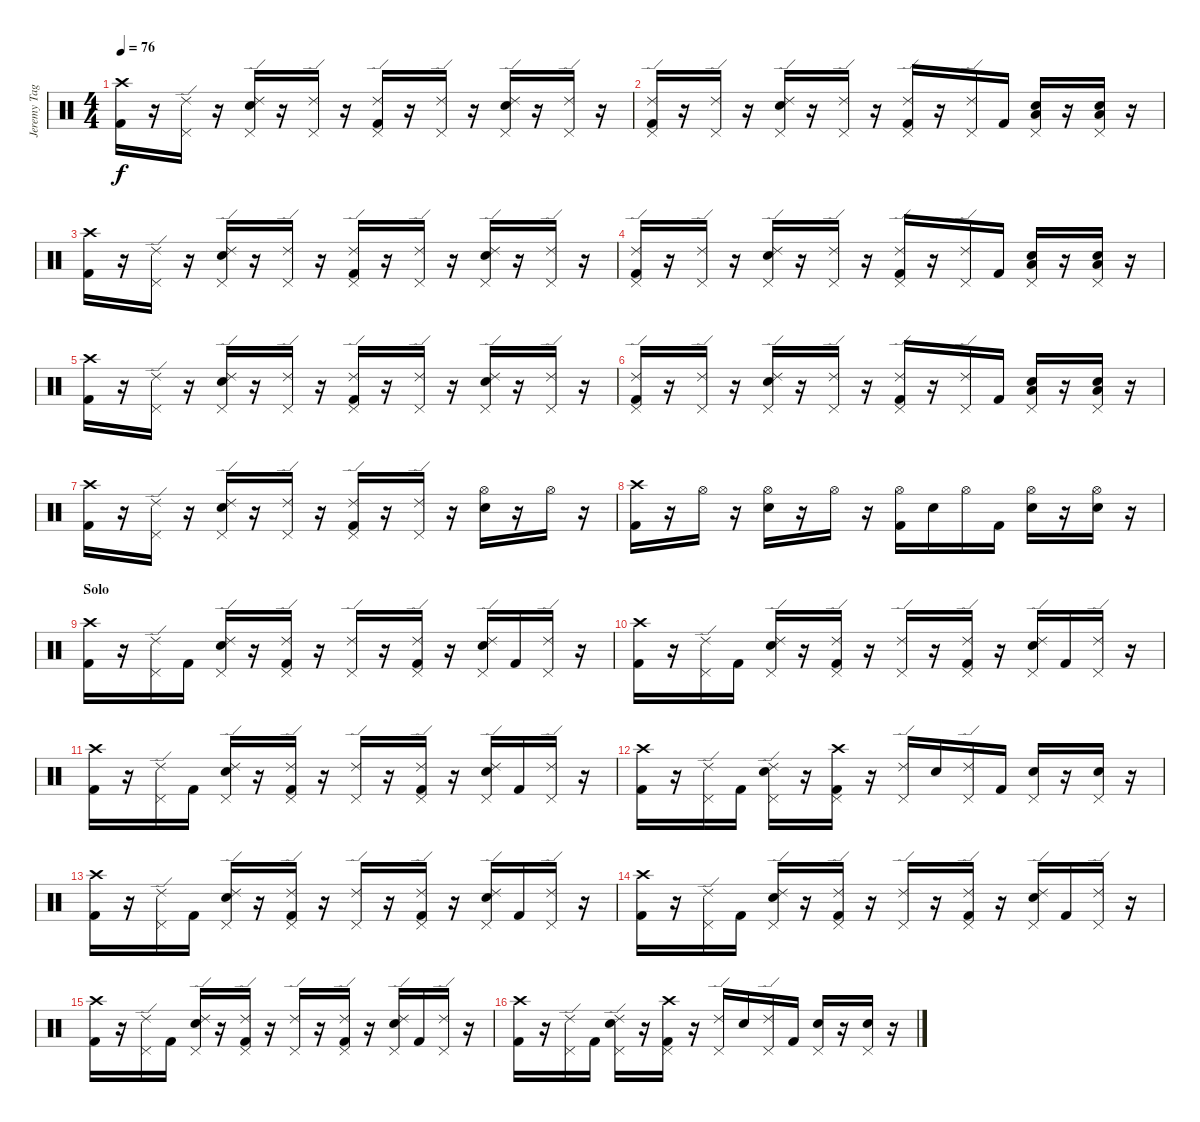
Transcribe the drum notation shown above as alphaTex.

\track ("Jeremy Taggart(Drums)" "Jeremy Tag") {instrument percussion}
\staff {score}
\articulation defaults
\ts (4 4)
\tempo 76
\clef neutral
\ks c
("Crash high (hit)" "Kick (hit) 2").16{dy f} r.16 ("Ride (edge) 2" "Pedal Hi-Hat (hit)").16 r.16 ("Ride (edge) 2" "Pedal Hi-Hat (hit)" "Snare (hit) 2").16 r.16 ("Ride (edge) 2" "Pedal Hi-Hat (hit)").16 r.16 ("Ride (edge) 2" "Pedal Hi-Hat (hit)" "Kick (hit) 2").16 r.16 ("Ride (edge) 2" "Pedal Hi-Hat (hit)").16 r.16 ("Ride (edge) 2" "Pedal Hi-Hat (hit)" "Snare (hit) 2").16 r.16 ("Ride (edge) 2" "Pedal Hi-Hat (hit)").16 r.16 |
("Ride (edge) 2" "Pedal Hi-Hat (hit)" "Kick (hit) 2").16 r.16 ("Ride (edge) 2" "Pedal Hi-Hat (hit)").16 r.16 ("Ride (edge) 2" "Pedal Hi-Hat (hit)" "Snare (hit) 2").16 r.16 ("Ride (edge) 2" "Pedal Hi-Hat (hit)").16 r.16 ("Ride (edge) 2" "Pedal Hi-Hat (hit)" "Kick (hit) 2").16 r.16 ("Ride (edge) 2" "Pedal Hi-Hat (hit)").16 "Kick (hit) 2".16 ("Pedal Hi-Hat (hit)" "Snare (hit) 2" "Low Tom (hit)").16 r.16 ("Pedal Hi-Hat (hit)" "Snare (hit) 2" "Low Tom (hit)").16 r.16 |
("Crash high (hit)" "Kick (hit) 2").16 r.16 ("Ride (edge) 2" "Pedal Hi-Hat (hit)").16 r.16 ("Ride (edge) 2" "Pedal Hi-Hat (hit)" "Snare (hit) 2").16 r.16 ("Ride (edge) 2" "Pedal Hi-Hat (hit)").16 r.16 ("Ride (edge) 2" "Pedal Hi-Hat (hit)" "Kick (hit) 2").16 r.16 ("Ride (edge) 2" "Pedal Hi-Hat (hit)").16 r.16 ("Ride (edge) 2" "Pedal Hi-Hat (hit)" "Snare (hit) 2").16 r.16 ("Ride (edge) 2" "Pedal Hi-Hat (hit)").16 r.16 |
("Ride (edge) 2" "Pedal Hi-Hat (hit)" "Kick (hit) 2").16 r.16 ("Ride (edge) 2" "Pedal Hi-Hat (hit)").16 r.16 ("Ride (edge) 2" "Pedal Hi-Hat (hit)" "Snare (hit) 2").16 r.16 ("Ride (edge) 2" "Pedal Hi-Hat (hit)").16 r.16 ("Ride (edge) 2" "Pedal Hi-Hat (hit)" "Kick (hit) 2").16 r.16 ("Ride (edge) 2" "Pedal Hi-Hat (hit)").16 "Kick (hit) 2".16 ("Pedal Hi-Hat (hit)" "Snare (hit) 2" "Low Tom (hit)").16 r.16 ("Pedal Hi-Hat (hit)" "Snare (hit) 2" "Low Tom (hit)").16 r.16 |
("Crash high (hit)" "Kick (hit) 2").16 r.16 ("Ride (edge) 2" "Pedal Hi-Hat (hit)").16 r.16 ("Ride (edge) 2" "Pedal Hi-Hat (hit)" "Snare (hit) 2").16 r.16 ("Ride (edge) 2" "Pedal Hi-Hat (hit)").16 r.16 ("Ride (edge) 2" "Pedal Hi-Hat (hit)" "Kick (hit) 2").16 r.16 ("Ride (edge) 2" "Pedal Hi-Hat (hit)").16 r.16 ("Ride (edge) 2" "Pedal Hi-Hat (hit)" "Snare (hit) 2").16 r.16 ("Ride (edge) 2" "Pedal Hi-Hat (hit)").16 r.16 |
("Ride (edge) 2" "Pedal Hi-Hat (hit)" "Kick (hit) 2").16 r.16 ("Ride (edge) 2" "Pedal Hi-Hat (hit)").16 r.16 ("Ride (edge) 2" "Pedal Hi-Hat (hit)" "Snare (hit) 2").16 r.16 ("Ride (edge) 2" "Pedal Hi-Hat (hit)").16 r.16 ("Ride (edge) 2" "Pedal Hi-Hat (hit)" "Kick (hit) 2").16 r.16 ("Ride (edge) 2" "Pedal Hi-Hat (hit)").16 "Kick (hit) 2".16 ("Pedal Hi-Hat (hit)" "Snare (hit) 2" "Low Tom (hit)").16 r.16 ("Pedal Hi-Hat (hit)" "Snare (hit) 2" "Low Tom (hit)").16 r.16 |
("Crash high (hit)" "Kick (hit) 2").16 r.16 ("Ride (edge) 2" "Pedal Hi-Hat (hit)").16 r.16 ("Ride (edge) 2" "Pedal Hi-Hat (hit)" "Snare (hit) 2").16 r.16 ("Ride (edge) 2" "Pedal Hi-Hat (hit)").16 r.16 ("Ride (edge) 2" "Pedal Hi-Hat (hit)" "Kick (hit) 2").16 r.16 ("Ride (edge) 2" "Pedal Hi-Hat (hit)").16 r.16 ("Hi-Hat (open)" "Snare (hit) 2").16 r.16 "Hi-Hat (open)".16 r.16 |
("Crash high (hit)" "Kick (hit) 2").16 r.16 "Hi-Hat (open)".16 r.16 ("Hi-Hat (open)" "Snare (hit) 2").16 r.16 "Hi-Hat (open)".16 r.16 ("Hi-Hat (open)" "Kick (hit) 2").16 "Snare (hit) 2".16 "Hi-Hat (open)".16 "Kick (hit) 2".16 ("Hi-Hat (open)" "Snare (hit) 2").16 r.16 ("Hi-Hat (open)" "Snare (hit) 2").16 r.16 |
\section ("" "Solo")
("Crash high (hit)" "Kick (hit) 2").16 r.16 ("Ride (edge) 2" "Pedal Hi-Hat (hit)").16 "Kick (hit) 2".16 ("Ride (edge) 2" "Snare (hit) 2" "Pedal Hi-Hat (hit)").16 r.16 ("Ride (edge) 2" "Pedal Hi-Hat (hit)" "Kick (hit) 2").16 r.16 ("Ride (edge) 2" "Pedal Hi-Hat (hit)").16 r.16 ("Ride (edge) 2" "Pedal Hi-Hat (hit)" "Kick (hit) 2").16 r.16 ("Ride (edge) 2" "Snare (hit) 2" "Pedal Hi-Hat (hit)").16 "Kick (hit) 2".16 ("Ride (edge) 2" "Pedal Hi-Hat (hit)").16 r.16 |
("Crash high (hit)" "Kick (hit) 2").16 r.16 ("Ride (edge) 2" "Pedal Hi-Hat (hit)").16 "Kick (hit) 2".16 ("Ride (edge) 2" "Snare (hit) 2" "Pedal Hi-Hat (hit)").16 r.16 ("Ride (edge) 2" "Pedal Hi-Hat (hit)" "Kick (hit) 2").16 r.16 ("Ride (edge) 2" "Pedal Hi-Hat (hit)").16 r.16 ("Ride (edge) 2" "Pedal Hi-Hat (hit)" "Kick (hit) 2").16 r.16 ("Ride (edge) 2" "Snare (hit) 2" "Pedal Hi-Hat (hit)").16 "Kick (hit) 2".16 ("Ride (edge) 2" "Pedal Hi-Hat (hit)").16 r.16 |
("Crash high (hit)" "Kick (hit) 2").16 r.16 ("Ride (edge) 2" "Pedal Hi-Hat (hit)").16 "Kick (hit) 2".16 ("Ride (edge) 2" "Snare (hit) 2" "Pedal Hi-Hat (hit)").16 r.16 ("Ride (edge) 2" "Pedal Hi-Hat (hit)" "Kick (hit) 2").16 r.16 ("Ride (edge) 2" "Pedal Hi-Hat (hit)").16 r.16 ("Ride (edge) 2" "Pedal Hi-Hat (hit)" "Kick (hit) 2").16 r.16 ("Ride (edge) 2" "Snare (hit) 2" "Pedal Hi-Hat (hit)").16 "Kick (hit) 2".16 ("Ride (edge) 2" "Pedal Hi-Hat (hit)").16 r.16 |
("Crash high (hit)" "Kick (hit) 2").16 r.16 ("Ride (edge) 2" "Pedal Hi-Hat (hit)").16 "Kick (hit) 2".16 ("Ride (edge) 2" "Snare (hit) 2" "Pedal Hi-Hat (hit)").16 r.16 ("Crash high (hit)" "Pedal Hi-Hat (hit)" "Kick (hit) 2").16 r.16 ("Ride (edge) 2" "Pedal Hi-Hat (hit)").16 "Snare (hit) 2".16 ("Ride (edge) 2" "Pedal Hi-Hat (hit)").16 "Kick (hit) 2".16 ("Pedal Hi-Hat (hit)" "Snare (hit) 2").16 r.16 ("Pedal Hi-Hat (hit)" "Snare (hit) 2").16 r.16 |
("Crash high (hit)" "Kick (hit) 2").16 r.16 ("Ride (edge) 2" "Pedal Hi-Hat (hit)").16 "Kick (hit) 2".16 ("Ride (edge) 2" "Snare (hit) 2" "Pedal Hi-Hat (hit)").16 r.16 ("Ride (edge) 2" "Pedal Hi-Hat (hit)" "Kick (hit) 2").16 r.16 ("Ride (edge) 2" "Pedal Hi-Hat (hit)").16 r.16 ("Ride (edge) 2" "Pedal Hi-Hat (hit)" "Kick (hit) 2").16 r.16 ("Ride (edge) 2" "Snare (hit) 2" "Pedal Hi-Hat (hit)").16 "Kick (hit) 2".16 ("Ride (edge) 2" "Pedal Hi-Hat (hit)").16 r.16 |
("Crash high (hit)" "Kick (hit) 2").16 r.16 ("Ride (edge) 2" "Pedal Hi-Hat (hit)").16 "Kick (hit) 2".16 ("Ride (edge) 2" "Snare (hit) 2" "Pedal Hi-Hat (hit)").16 r.16 ("Ride (edge) 2" "Pedal Hi-Hat (hit)" "Kick (hit) 2").16 r.16 ("Ride (edge) 2" "Pedal Hi-Hat (hit)").16 r.16 ("Ride (edge) 2" "Pedal Hi-Hat (hit)" "Kick (hit) 2").16 r.16 ("Ride (edge) 2" "Snare (hit) 2" "Pedal Hi-Hat (hit)").16 "Kick (hit) 2".16 ("Ride (edge) 2" "Pedal Hi-Hat (hit)").16 r.16 |
("Crash high (hit)" "Kick (hit) 2").16 r.16 ("Ride (edge) 2" "Pedal Hi-Hat (hit)").16 "Kick (hit) 2".16 ("Ride (edge) 2" "Snare (hit) 2" "Pedal Hi-Hat (hit)").16 r.16 ("Ride (edge) 2" "Pedal Hi-Hat (hit)" "Kick (hit) 2").16 r.16 ("Ride (edge) 2" "Pedal Hi-Hat (hit)").16 r.16 ("Ride (edge) 2" "Pedal Hi-Hat (hit)" "Kick (hit) 2").16 r.16 ("Ride (edge) 2" "Snare (hit) 2" "Pedal Hi-Hat (hit)").16 "Kick (hit) 2".16 ("Ride (edge) 2" "Pedal Hi-Hat (hit)").16 r.16 |
("Crash high (hit)" "Kick (hit) 2").16 r.16 ("Ride (edge) 2" "Pedal Hi-Hat (hit)").16 "Kick (hit) 2".16 ("Ride (edge) 2" "Snare (hit) 2" "Pedal Hi-Hat (hit)").16 r.16 ("Crash high (hit)" "Pedal Hi-Hat (hit)" "Kick (hit) 2").16 r.16 ("Ride (edge) 2" "Pedal Hi-Hat (hit)").16 "Snare (hit) 2".16 ("Ride (edge) 2" "Pedal Hi-Hat (hit)").16 "Kick (hit) 2".16 ("Pedal Hi-Hat (hit)" "Snare (hit) 2").16 r.16 ("Pedal Hi-Hat (hit)" "Snare (hit) 2").16 r.16
